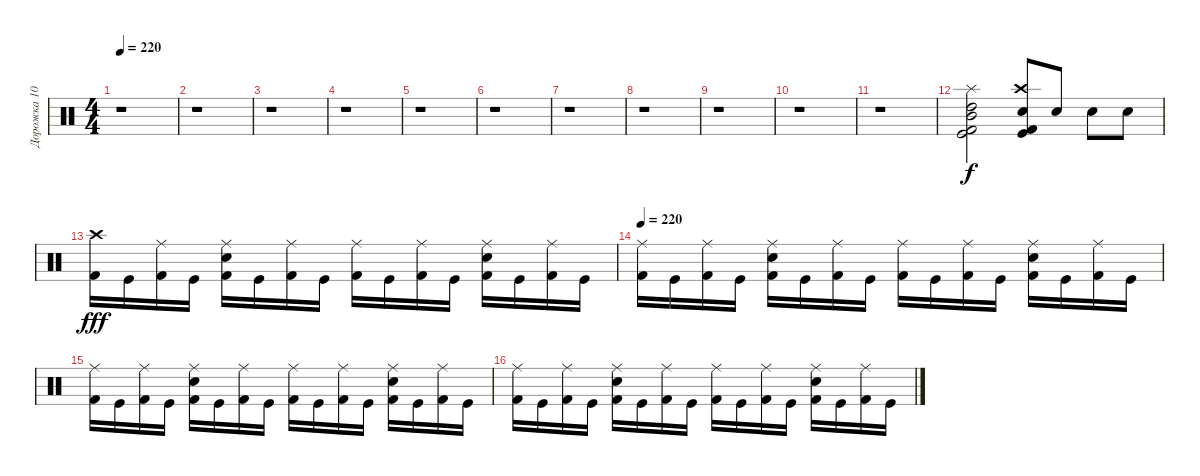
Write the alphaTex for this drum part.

\track ("Дорожка 10" "Дорожка 10") {instrument percussion}
\staff {score}
\articulation defaults
\ts (4 4)
\tempo 220
\clef neutral
\ks c
r.1{dy f} |
r.1 |
r.1 |
r.1 |
r.1 |
r.1 |
r.1 |
r.1 |
r.1 |
r.1 |
r.1 |
("Splash (hit)" "Kick (hit)" "Mid Tom (hit)" "Kick (hit) 2" "High Tom (hit)").2 ("Crash high (hit)" "Kick (hit)" "Electric Snare (hit)" "Kick (hit) 2").8 "Electric Snare (hit)".8 "Electric Snare (hit)".8 "Electric Snare (hit)".8 |
("Crash high (hit)" "Kick (hit) 2").16{dy fff} "Kick (hit)".16 ("Ride (middle)" "Kick (hit) 2").16 "Kick (hit)".16 ("Ride (middle)" "Snare (hit) 2" "Kick (hit) 2").16 "Kick (hit)".16 ("Kick (hit) 2" "Ride (middle)").16 "Kick (hit)".16 ("Kick (hit) 2" "Ride (middle)").16 "Kick (hit)".16 ("Kick (hit) 2" "Ride (middle)").16 "Kick (hit)".16 ("Ride (middle)" "Kick (hit) 2" "Snare (hit) 2").16 "Kick (hit)".16 ("Ride (middle)" "Kick (hit) 2").16 "Kick (hit)".16 |
\tempo 220
("Ride (middle)" "Kick (hit) 2").16 "Kick (hit)".16 ("Ride (middle)" "Kick (hit) 2").16 "Kick (hit)".16 ("Snare (hit) 2" "Ride (middle)" "Kick (hit) 2").16 "Kick (hit)".16 ("Ride (middle)" "Kick (hit) 2").16 "Kick (hit)".16 ("Kick (hit) 2" "Ride (middle)").16 "Kick (hit)".16 ("Kick (hit) 2" "Ride (middle)").16 "Kick (hit)".16 ("Kick (hit) 2" "Ride (middle)" "Snare (hit) 2").16 "Kick (hit)".16 ("Kick (hit) 2" "Ride (middle)").16 "Kick (hit)".16 |
("Kick (hit) 2" "Ride (middle)").16 "Kick (hit)".16 ("Kick (hit) 2" "Ride (middle)").16 "Kick (hit)".16 ("Snare (hit) 2" "Kick (hit) 2" "Ride (middle)").16 "Kick (hit)".16 ("Ride (middle)" "Kick (hit) 2").16 "Kick (hit)".16 ("Ride (middle)" "Kick (hit) 2").16 "Kick (hit)".16 ("Kick (hit) 2" "Ride (middle)").16 "Kick (hit)".16 ("Ride (middle)" "Kick (hit) 2" "Snare (hit) 2").16 "Kick (hit)".16 ("Ride (middle)" "Kick (hit) 2").16 "Kick (hit)".16 |
("Kick (hit) 2" "Ride (middle)").16 "Kick (hit)".16 ("Kick (hit) 2" "Ride (middle)").16 "Kick (hit)".16 ("Kick (hit) 2" "Ride (middle)" "Snare (hit) 2").16 "Kick (hit)".16 ("Ride (middle)" "Kick (hit) 2").16 "Kick (hit)".16 ("Kick (hit) 2" "Ride (middle)").16 "Kick (hit)".16 ("Ride (middle)" "Kick (hit) 2").16 "Kick (hit)".16 ("Ride (middle)" "Kick (hit) 2" "Snare (hit) 2").16 "Kick (hit)".16 ("Ride (middle)" "Kick (hit) 2").16 "Kick (hit)".16
